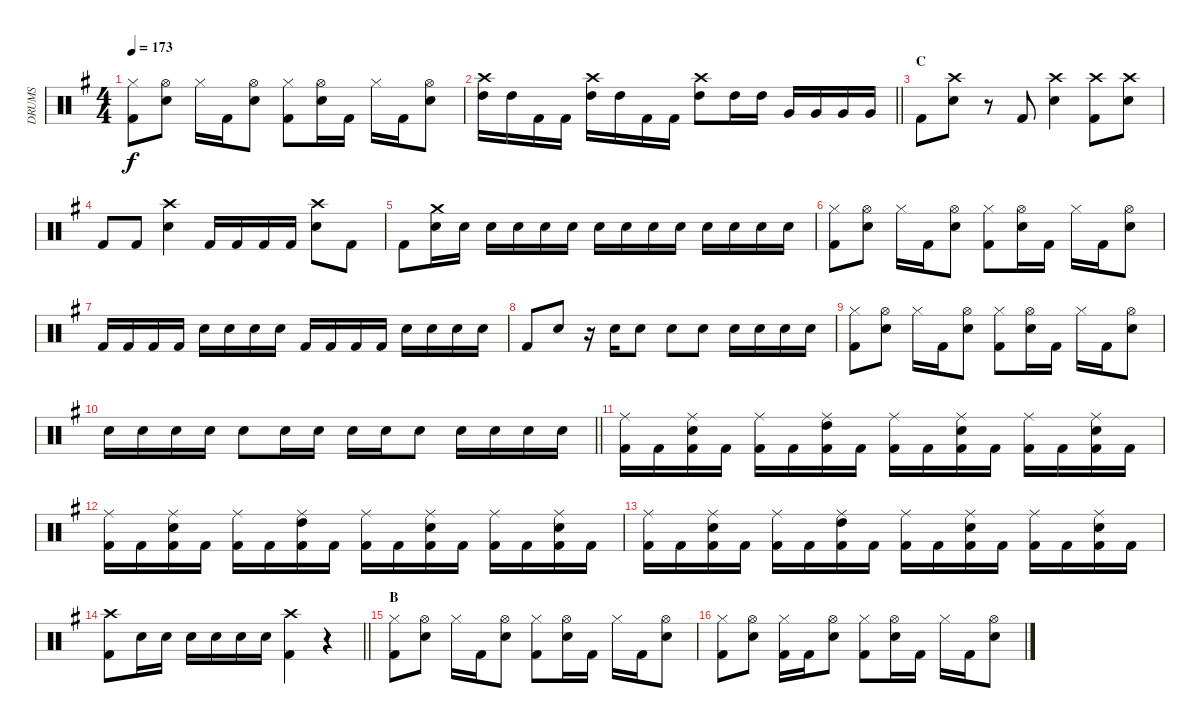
\track ("DRUMS" "DRUMS") {instrument percussion}
\staff {score}
\articulation defaults
\ts (4 4)
\tempo 173
\clef neutral
\ks g
("Hi-Hat (closed)" "Kick (hit) 2").8{dy f} ("Hi-Hat (open)" "Snare (hit) 2").8 "Hi-Hat (closed)".16 "Kick (hit) 2".16 ("Hi-Hat (open)" "Snare (hit) 2").8 ("Hi-Hat (closed)" "Kick (hit) 2").8 ("Hi-Hat (open)" "Snare (hit) 2").16 "Kick (hit) 2".16 "Hi-Hat (closed)".16 "Kick (hit) 2".16 ("Hi-Hat (open)" "Snare (hit) 2").8 |
\barLineRight lightlight
("Crash high (hit)" "High Tom (hit)").16 "High Tom (hit)".16 "Kick (hit) 2".16 "Kick (hit) 2".16 ("Crash high (hit)" "High Tom (hit)").16 "High Tom (hit)".16 "Kick (hit) 2".16 "Kick (hit) 2".16 ("Crash high (hit)" "High Tom (hit)").8 "High Tom (hit)".16 "High Tom (hit)".16 "Very Low Tom (hit)".16 "Very Low Tom (hit)".16 "Very Low Tom (hit)".16 "Very Low Tom (hit)".16 |
\section ("" "C")
"Kick (hit) 2".8 ("Crash high (hit)" "Snare (hit) 2").8 r.8 "Kick (hit) 2".8 ("Crash high (hit)" "Snare (hit) 2").4 ("Crash high (hit)" "Kick (hit) 2").8 ("Crash high (hit)" "Snare (hit) 2").8 |
"Kick (hit) 2".8 "Kick (hit) 2".8 ("Crash high (hit)" "Snare (hit) 2").4 "Kick (hit) 2".16 "Kick (hit) 2".16 "Kick (hit) 2".16 "Kick (hit) 2".16 ("Crash high (hit)" "Snare (hit) 2").8 "Kick (hit) 2".8 |
"Kick (hit) 2".8 ("Crash medium (hit)" "Snare (hit) 2").16 "Snare (hit) 2".16 "Snare (hit) 2".16 "Snare (hit) 2".16 "Snare (hit) 2".16 "Snare (hit) 2".16 "Snare (hit) 2".16 "Snare (hit) 2".16 "Snare (hit) 2".16 "Snare (hit) 2".16 "Snare (hit) 2".16 "Snare (hit) 2".16 "Snare (hit) 2".16 "Snare (hit) 2".16 |
("Hi-Hat (closed)" "Kick (hit) 2").8 ("Hi-Hat (open)" "Snare (hit) 2").8 "Hi-Hat (closed)".16 "Kick (hit) 2".16 ("Hi-Hat (open)" "Snare (hit) 2").8 ("Hi-Hat (closed)" "Kick (hit) 2").8 ("Hi-Hat (open)" "Snare (hit) 2").16 "Kick (hit) 2".16 "Hi-Hat (closed)".16 "Kick (hit) 2".16 ("Hi-Hat (open)" "Snare (hit) 2").8 |
"Kick (hit) 2".16 "Kick (hit) 2".16 "Kick (hit) 2".16 "Kick (hit) 2".16 "Snare (hit) 2".16 "Snare (hit) 2".16 "Snare (hit) 2".16 "Snare (hit) 2".16 "Kick (hit) 2".16 "Kick (hit) 2".16 "Kick (hit) 2".16 "Kick (hit) 2".16 "Snare (hit) 2".16 "Snare (hit) 2".16 "Snare (hit) 2".16 "Snare (hit) 2".16 |
"Kick (hit) 2".8 "Snare (hit) 2".8 r.16 "Snare (hit) 2".16 "Snare (hit) 2".8 "Snare (hit) 2".8 "Snare (hit) 2".8 "Snare (hit) 2".16 "Snare (hit) 2".16 "Snare (hit) 2".16 "Snare (hit) 2".16 |
("Hi-Hat (closed)" "Kick (hit) 2").8 ("Hi-Hat (open)" "Snare (hit) 2").8 "Hi-Hat (closed)".16 "Kick (hit) 2".16 ("Hi-Hat (open)" "Snare (hit) 2").8 ("Hi-Hat (closed)" "Kick (hit) 2").8 ("Hi-Hat (open)" "Snare (hit) 2").16 "Kick (hit) 2".16 "Hi-Hat (closed)".16 "Kick (hit) 2".16 ("Hi-Hat (open)" "Snare (hit) 2").8 |
\barLineRight lightlight "Snare (hit) 2".16 "Snare (hit) 2".16 "Snare (hit) 2".16 "Snare (hit) 2".16 "Snare (hit) 2".8 "Snare (hit) 2".16 "Snare (hit) 2".16 "Snare (hit) 2".16 "Snare (hit) 2".16 "Snare (hit) 2".8 "Snare (hit) 2".16 "Snare (hit) 2".16 "Snare (hit) 2".16 "Snare (hit) 2".16
|
("Ride (middle)" "Kick (hit) 2").16 "Kick (hit) 2".16 ("Ride (middle)" "Kick (hit) 2" "Snare (hit) 2").16 "Kick (hit) 2".16 ("Ride (middle)" "Kick (hit) 2").16 "Kick (hit) 2".16 ("Ride (middle)" "Kick (hit) 2" "High Tom (hit)").16 "Kick (hit) 2".16 ("Ride (middle)" "Kick (hit) 2").16 "Kick (hit) 2".16 ("Ride (middle)" "Kick (hit) 2" "Snare (hit) 2").16 "Kick (hit) 2".16 ("Ride (middle)" "Kick (hit) 2").16 "Kick (hit) 2".16 ("Ride (middle)" "Kick (hit) 2" "Snare (hit) 2").16 "Kick (hit) 2".16 |
("Ride (middle)" "Kick (hit) 2").16 "Kick (hit) 2".16 ("Ride (middle)" "Kick (hit) 2" "Snare (hit) 2").16 "Kick (hit) 2".16 ("Ride (middle)" "Kick (hit) 2").16 "Kick (hit) 2".16 ("Ride (middle)" "Kick (hit) 2" "High Tom (hit)").16 "Kick (hit) 2".16 ("Ride (middle)" "Kick (hit) 2").16 "Kick (hit) 2".16 ("Ride (middle)" "Kick (hit) 2" "Snare (hit) 2").16 "Kick (hit) 2".16 ("Ride (middle)" "Kick (hit) 2").16 "Kick (hit) 2".16 ("Ride (middle)" "Kick (hit) 2" "Snare (hit) 2").16 "Kick (hit) 2".16 |
("Ride (middle)" "Kick (hit) 2").16 "Kick (hit) 2".16 ("Ride (middle)" "Kick (hit) 2" "Snare (hit) 2").16 "Kick (hit) 2".16 ("Ride (middle)" "Kick (hit) 2").16 "Kick (hit) 2".16 ("Ride (middle)" "Kick (hit) 2" "High Tom (hit)").16 "Kick (hit) 2".16 ("Ride (middle)" "Kick (hit) 2").16 "Kick (hit) 2".16 ("Ride (middle)" "Kick (hit) 2" "Snare (hit) 2").16 "Kick (hit) 2".16 ("Ride (middle)" "Kick (hit) 2").16 "Kick (hit) 2".16 ("Ride (middle)" "Kick (hit) 2" "Snare (hit) 2").16 "Kick (hit) 2".16 |
\barLineRight lightlight
("Crash high (hit)" "Kick (hit) 2").8 "Snare (hit) 2".16 "Snare (hit) 2".16 "Snare (hit) 2".16 "Snare (hit) 2".16 "Snare (hit) 2".16 "Snare (hit) 2".16 ("Crash high (hit)" "Kick (hit) 2").4 r.4 |
\section ("" "B")
("Hi-Hat (closed)" "Kick (hit) 2").8 ("Hi-Hat (open)" "Snare (hit) 2").8 "Hi-Hat (closed)".16 "Kick (hit) 2".16 ("Hi-Hat (open)" "Snare (hit) 2").8 ("Hi-Hat (closed)" "Kick (hit) 2").8 ("Hi-Hat (open)" "Snare (hit) 2").16 "Kick (hit) 2".16 "Hi-Hat (closed)".16 "Kick (hit) 2".16 ("Hi-Hat (open)" "Snare (hit) 2").8 |
("Hi-Hat (closed)" "Kick (hit) 2").8 ("Hi-Hat (open)" "Snare (hit) 2").8 ("Hi-Hat (closed)" "Kick (hit) 2").16 "Kick (hit) 2".16 ("Hi-Hat (open)" "Snare (hit) 2").8 ("Hi-Hat (closed)" "Kick (hit) 2").8 ("Hi-Hat (open)" "Snare (hit) 2").16 "Kick (hit) 2".16 "Hi-Hat (closed)".16 "Kick (hit) 2".16 ("Hi-Hat (open)" "Snare (hit) 2").8
